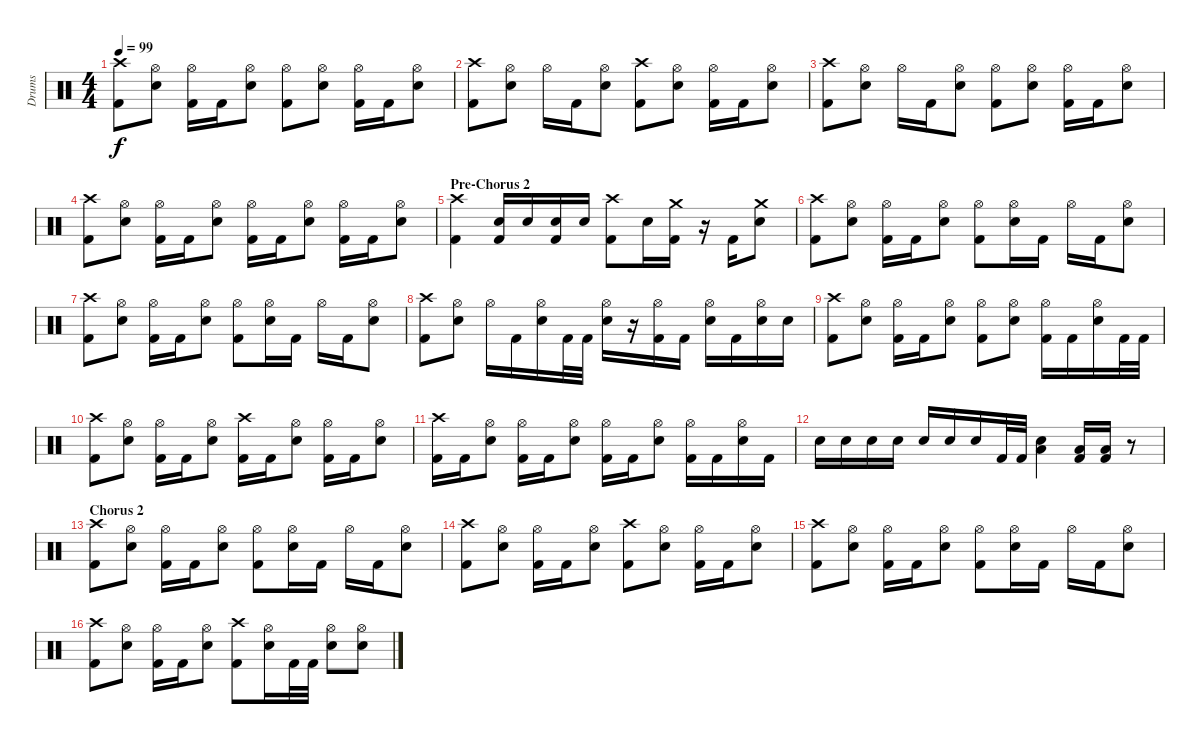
\track ("Drums" "Drums") {instrument percussion}
\staff {score}
\articulation defaults
\ts (4 4)
\tempo 99
\clef neutral
\ks c
("Kick (hit) 2" "Crash high (hit)").8{dy f} ("Electric Snare (hit)" "Hi-Hat (open)").8 ("Kick (hit) 2" "Hi-Hat (open)").16 "Kick (hit) 2".16 ("Electric Snare (hit)" "Hi-Hat (open)").8 ("Kick (hit) 2" "Hi-Hat (open)").8 ("Electric Snare (hit)" "Hi-Hat (open)").8 ("Kick (hit) 2" "Hi-Hat (open)").16 "Kick (hit) 2".16 ("Electric Snare (hit)" "Hi-Hat (open)").8 |
("Kick (hit) 2" "Crash high (hit)").8 ("Electric Snare (hit)" "Hi-Hat (open)").8 "Hi-Hat (open)".16 "Kick (hit) 2".16 ("Electric Snare (hit)" "Hi-Hat (open)").8 ("Kick (hit) 2" "Crash high (hit)").8 ("Electric Snare (hit)" "Hi-Hat (open)").8 ("Kick (hit) 2" "Hi-Hat (open)").16 "Kick (hit) 2".16 ("Electric Snare (hit)" "Hi-Hat (open)").8 |
("Kick (hit) 2" "Crash high (hit)").8 ("Electric Snare (hit)" "Hi-Hat (open)").8 "Hi-Hat (open)".16 "Kick (hit) 2".16 ("Electric Snare (hit)" "Hi-Hat (open)").8 ("Kick (hit) 2" "Hi-Hat (open)").8 ("Electric Snare (hit)" "Hi-Hat (open)").8 ("Kick (hit) 2" "Hi-Hat (open)").16 "Kick (hit) 2".16 ("Electric Snare (hit)" "Hi-Hat (open)").8 |
("Kick (hit) 2" "Crash high (hit)").8 ("Electric Snare (hit)" "Hi-Hat (open)").8 ("Kick (hit) 2" "Hi-Hat (open)").16 "Kick (hit) 2".16 ("Electric Snare (hit)" "Hi-Hat (open)").8 ("Kick (hit) 2" "Hi-Hat (open)").16 "Kick (hit) 2".16 ("Electric Snare (hit)" "Hi-Hat (open)").8 ("Kick (hit) 2" "Hi-Hat (open)").16 "Kick (hit) 2".16 ("Electric Snare (hit)" "Hi-Hat (open)").8 |
\section ("" "Pre-Chorus 2")
("Kick (hit) 2" "Crash high (hit)").4 ("Electric Snare (hit)" "Kick (hit) 2").16 "Electric Snare (hit)".16 ("Electric Snare (hit)" "Kick (hit) 2").16 "Electric Snare (hit)".16 ("Kick (hit) 2" "Crash high (hit)").8 "Electric Snare (hit)".16 ("Kick (hit) 2" "Crash medium (hit)").16 r.16 "Kick (hit) 2".16 ("Electric Snare (hit)" "Crash medium (hit)").8 |
("Kick (hit) 2" "Crash high (hit)").8 ("Electric Snare (hit)" "Hi-Hat (open)").8 ("Kick (hit) 2" "Hi-Hat (open)").16 "Kick (hit) 2".16 ("Electric Snare (hit)" "Hi-Hat (open)").8 ("Kick (hit) 2" "Hi-Hat (open)").8 ("Electric Snare (hit)" "Hi-Hat (open)").16 "Kick (hit) 2".16 "Hi-Hat (open)".16 "Kick (hit) 2".16 ("Electric Snare (hit)" "Hi-Hat (open)").8 |
("Kick (hit) 2" "Crash high (hit)").8 ("Electric Snare (hit)" "Hi-Hat (open)").8 ("Kick (hit) 2" "Hi-Hat (open)").16 "Kick (hit) 2".16 ("Electric Snare (hit)" "Hi-Hat (open)").8 ("Kick (hit) 2" "Hi-Hat (open)").8 ("Electric Snare (hit)" "Hi-Hat (open)").16 "Kick (hit) 2".16 "Hi-Hat (open)".16 "Kick (hit) 2".16 ("Electric Snare (hit)" "Hi-Hat (open)").8 |
("Kick (hit) 2" "Crash high (hit)").8 ("Electric Snare (hit)" "Hi-Hat (open)").8 "Hi-Hat (open)".16 "Kick (hit) 2".16 ("Electric Snare (hit)" "Hi-Hat (open)").16 "Kick (hit) 2".32 "Kick (hit) 2".32 ("Electric Snare (hit)" "Hi-Hat (open)").16 r.16 ("Kick (hit) 2" "Hi-Hat (open)").16 "Kick (hit) 2".16 ("Electric Snare (hit)" "Hi-Hat (open)").16 "Kick (hit) 2".16 ("Electric Snare (hit)" "Hi-Hat (open)").16 "Electric Snare (hit)".16 |
("Kick (hit) 2" "Crash high (hit)").8 ("Electric Snare (hit)" "Hi-Hat (open)").8 ("Kick (hit) 2" "Hi-Hat (open)").16 "Kick (hit) 2".16 ("Electric Snare (hit)" "Hi-Hat (open)").8 ("Kick (hit) 2" "Hi-Hat (open)").8 ("Electric Snare (hit)" "Hi-Hat (open)").8 ("Kick (hit) 2" "Hi-Hat (open)").16 "Kick (hit) 2".16 ("Electric Snare (hit)" "Hi-Hat (open)").16 "Kick (hit) 2".32 "Kick (hit) 2".32 |
("Kick (hit) 2" "Crash high (hit)").8 ("Electric Snare (hit)" "Hi-Hat (open)").8 ("Kick (hit) 2" "Hi-Hat (open)").16 "Kick (hit) 2".16 ("Electric Snare (hit)" "Hi-Hat (open)").8 ("Kick (hit) 2" "Crash high (hit)").16 "Kick (hit) 2".16 ("Electric Snare (hit)" "Hi-Hat (open)").8 ("Kick (hit) 2" "Hi-Hat (open)").16 "Kick (hit) 2".16 ("Electric Snare (hit)" "Hi-Hat (open)").8 |
("Kick (hit) 2" "Crash high (hit)").16 "Kick (hit) 2".16 ("Electric Snare (hit)" "Hi-Hat (open)").8 ("Kick (hit) 2" "Hi-Hat (open)").16 "Kick (hit) 2".16 ("Electric Snare (hit)" "Hi-Hat (open)").8 ("Kick (hit) 2" "Hi-Hat (open)").16 "Kick (hit) 2".16 ("Electric Snare (hit)" "Hi-Hat (open)").8 ("Kick (hit) 2" "Hi-Hat (open)").16 "Kick (hit) 2".16 ("Electric Snare (hit)" "Hi-Hat (open)").16 "Kick (hit) 2".16 |
"Electric Snare (hit)".16 "Electric Snare (hit)".16 "Electric Snare (hit)".16 "Electric Snare (hit)".16 "Electric Snare (hit)".16 "Electric Snare (hit)".16 "Electric Snare (hit)".16 "Kick (hit) 2".32 "Kick (hit) 2".32 ("Electric Snare (hit)" "Low Tom (hit)").4 ("Kick (hit) 2" "Low Tom (hit)").16 ("Kick (hit) 2" "Low Tom (hit)").16 r.8 |
\section ("" "Chorus 2")
("Kick (hit) 2" "Crash high (hit)").8 ("Electric Snare (hit)" "Hi-Hat (open)").8 ("Kick (hit) 2" "Hi-Hat (open)").16 "Kick (hit) 2".16 ("Electric Snare (hit)" "Hi-Hat (open)").8 ("Kick (hit) 2" "Hi-Hat (open)").8 ("Electric Snare (hit)" "Hi-Hat (open)").16 "Kick (hit) 2".16 "Hi-Hat (open)".16 "Kick (hit) 2".16 ("Electric Snare (hit)" "Hi-Hat (open)").8 |
("Kick (hit) 2" "Crash high (hit)").8 ("Electric Snare (hit)" "Hi-Hat (open)").8 ("Kick (hit) 2" "Hi-Hat (open)").16 "Kick (hit) 2".16 ("Electric Snare (hit)" "Hi-Hat (open)").8 ("Kick (hit) 2" "Crash high (hit)").8 ("Electric Snare (hit)" "Hi-Hat (open)").8 ("Kick (hit) 2" "Hi-Hat (open)").16 "Kick (hit) 2".16 ("Electric Snare (hit)" "Hi-Hat (open)").8 |
("Kick (hit) 2" "Crash high (hit)").8 ("Electric Snare (hit)" "Hi-Hat (open)").8 ("Kick (hit) 2" "Hi-Hat (open)").16 "Kick (hit) 2".16 ("Electric Snare (hit)" "Hi-Hat (open)").8 ("Kick (hit) 2" "Hi-Hat (open)").8 ("Electric Snare (hit)" "Hi-Hat (open)").16 "Kick (hit) 2".16 "Hi-Hat (open)".16 "Kick (hit) 2".16 ("Electric Snare (hit)" "Hi-Hat (open)").8 |
("Kick (hit) 2" "Crash high (hit)").8 ("Electric Snare (hit)" "Hi-Hat (open)").8 ("Kick (hit) 2" "Hi-Hat (open)").16 "Kick (hit) 2".16 ("Electric Snare (hit)" "Hi-Hat (open)").8 ("Kick (hit) 2" "Crash high (hit)").8 ("Electric Snare (hit)" "Hi-Hat (open)").16 "Kick (hit) 2".32 "Kick (hit) 2".32 ("Electric Snare (hit)" "Hi-Hat (open)").8 ("Electric Snare (hit)" "Hi-Hat (open)").8
